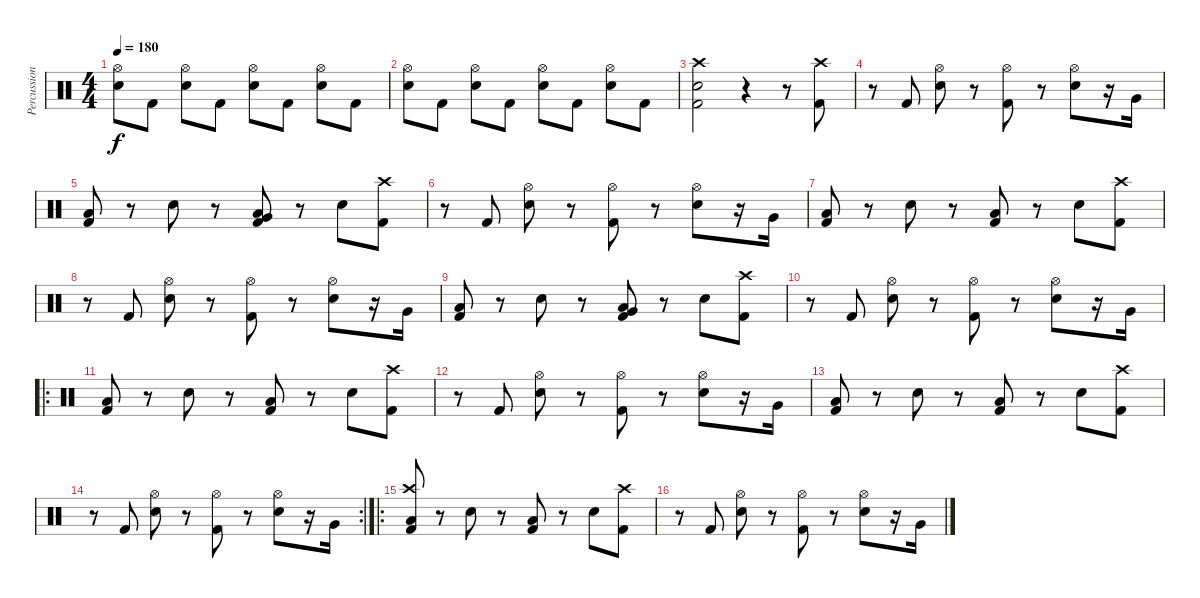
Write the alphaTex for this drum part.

\track ("Percussion" "Percussion") {instrument percussion}
\staff {score}
\articulation defaults
\ts (4 4)
\tempo 180
\clef neutral
\ks c
("Hi-Hat (open)" "Electric Snare (hit)").8{dy f} "Kick (hit) 2".8 ("Hi-Hat (open)" "Electric Snare (hit)").8 "Kick (hit) 2".8 ("Hi-Hat (open)" "Electric Snare (hit)").8 "Kick (hit) 2".8 ("Hi-Hat (open)" "Electric Snare (hit)").8 "Kick (hit) 2".8 |
("Hi-Hat (open)" "Electric Snare (hit)").8 "Kick (hit) 2".8 ("Hi-Hat (open)" "Electric Snare (hit)").8 "Kick (hit) 2".8 ("Hi-Hat (open)" "Electric Snare (hit)").8 "Kick (hit) 2".8 ("Hi-Hat (open)" "Electric Snare (hit)").8 "Kick (hit) 2".8 |
("Crash high (hit)" "Electric Snare (hit)" "Kick (hit) 2").2 r.4 r.8 ("Crash high (hit)" "Kick (hit) 2").8 |
r.8 "Kick (hit) 2".8 ("Hi-Hat (open)" "Electric Snare (hit)").8 r.8 ("Hi-Hat (open)" "Kick (hit) 2").8 r.8 ("Hi-Hat (open)" "Electric Snare (hit)").8 r.16 "Very Low Tom (hit)".16 |
("Low Floor Tom (hit)" "Kick (hit) 2").8 r.8 "Electric Snare (hit)".8 r.8 ("Low Floor Tom (hit)" "Very Low Tom (hit)" "Kick (hit) 2").8 r.8 "Electric Snare (hit)".8 ("Crash high (hit)" "Kick (hit) 2").8 |
r.8 "Kick (hit) 2".8 ("Hi-Hat (open)" "Electric Snare (hit)").8 r.8 ("Hi-Hat (open)" "Kick (hit) 2").8 r.8 ("Hi-Hat (open)" "Electric Snare (hit)").8 r.16 "Very Low Tom (hit)".16 |
("Low Floor Tom (hit)" "Kick (hit) 2").8 r.8 "Electric Snare (hit)".8 r.8 ("Low Floor Tom (hit)" "Kick (hit) 2").8 r.8 "Electric Snare (hit)".8 ("Crash high (hit)" "Kick (hit) 2").8 |
r.8 "Kick (hit) 2".8 ("Hi-Hat (open)" "Electric Snare (hit)").8 r.8 ("Hi-Hat (open)" "Kick (hit) 2").8 r.8 ("Hi-Hat (open)" "Electric Snare (hit)").8 r.16 "Very Low Tom (hit)".16 |
("Low Floor Tom (hit)" "Kick (hit) 2").8 r.8 "Electric Snare (hit)".8 r.8 ("Low Floor Tom (hit)" "Very Low Tom (hit)" "Kick (hit) 2").8 r.8 "Electric Snare (hit)".8 ("Crash high (hit)" "Kick (hit) 2").8 |
r.8 "Kick (hit) 2".8 ("Hi-Hat (open)" "Electric Snare (hit)").8 r.8 ("Hi-Hat (open)" "Kick (hit) 2").8 r.8 ("Hi-Hat (open)" "Electric Snare (hit)").8 r.16 "Very Low Tom (hit)".16 |
\ro
("Low Floor Tom (hit)" "Kick (hit) 2").8 r.8 "Electric Snare (hit)".8 r.8 ("Low Floor Tom (hit)" "Kick (hit) 2").8 r.8 "Electric Snare (hit)".8 ("Crash high (hit)" "Kick (hit) 2").8 |
r.8 "Kick (hit) 2".8 ("Hi-Hat (open)" "Electric Snare (hit)").8 r.8 ("Hi-Hat (open)" "Kick (hit) 2").8 r.8 ("Hi-Hat (open)" "Electric Snare (hit)").8 r.16 "Very Low Tom (hit)".16 |
("Low Floor Tom (hit)" "Kick (hit) 2").8 r.8 "Electric Snare (hit)".8 r.8 ("Low Floor Tom (hit)" "Kick (hit) 2").8 r.8 "Electric Snare (hit)".8 ("Crash high (hit)" "Kick (hit) 2").8 |
\rc 2
r.8 "Kick (hit) 2".8 ("Hi-Hat (open)" "Electric Snare (hit)").8 r.8 ("Hi-Hat (open)" "Kick (hit) 2").8 r.8 ("Hi-Hat (open)" "Electric Snare (hit)").8 r.16 "Very Low Tom (hit)".16 |
\ro
("Crash high (hit)" "Low Floor Tom (hit)" "Kick (hit) 2").8 r.8 "Electric Snare (hit)".8 r.8 ("Low Floor Tom (hit)" "Kick (hit) 2").8 r.8 "Electric Snare (hit)".8 ("Crash high (hit)" "Kick (hit) 2").8 |
r.8 "Kick (hit) 2".8 ("Hi-Hat (open)" "Electric Snare (hit)").8 r.8 ("Hi-Hat (open)" "Kick (hit) 2").8 r.8 ("Hi-Hat (open)" "Electric Snare (hit)").8 r.16 "Very Low Tom (hit)".16
